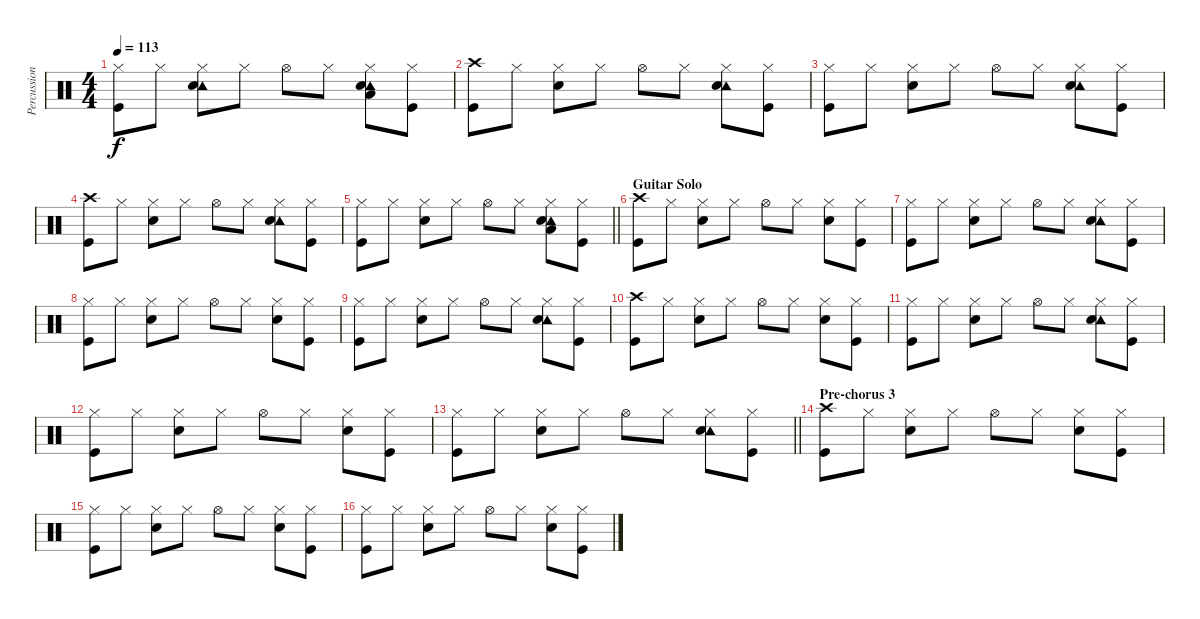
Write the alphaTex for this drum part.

\track ("Percussion" "Percussion") {instrument percussion}
\staff {score}
\articulation defaults
\ts (4 4)
\tempo 113
\clef neutral
\ks c
("Hi-Hat (closed)" "Kick (hit)").8{dy f} "Hi-Hat (closed)".8 ("Hi-Hat (closed)" "Tambourine (hit)" "Snare (hit) 2").8 "Hi-Hat (closed)".8 "Hi-Hat (open)".8 "Hi-Hat (closed)".8 ("Hi-Hat (closed)" "Tambourine (hit)" "Low Tom (hit)" "Snare (hit) 2").8 ("Hi-Hat (closed)" "Kick (hit)").8 |
("Crash high (hit)" "Kick (hit)").8 "Hi-Hat (closed)".8 ("Hi-Hat (closed)" "Snare (hit) 2").8 "Hi-Hat (closed)".8 "Hi-Hat (open)".8 "Hi-Hat (closed)".8 ("Hi-Hat (closed)" "Tambourine (hit)" "Snare (hit) 2").8 ("Hi-Hat (closed)" "Kick (hit)").8 |
("Hi-Hat (closed)" "Kick (hit)").8 "Hi-Hat (closed)".8 ("Hi-Hat (closed)" "Snare (hit) 2").8 "Hi-Hat (closed)".8 "Hi-Hat (open)".8 "Hi-Hat (closed)".8 ("Hi-Hat (closed)" "Tambourine (hit)" "Snare (hit) 2").8 ("Hi-Hat (closed)" "Kick (hit)").8 |
("Crash high (hit)" "Kick (hit)").8 "Hi-Hat (closed)".8 ("Hi-Hat (closed)" "Snare (hit) 2").8 "Hi-Hat (closed)".8 "Hi-Hat (open)".8 "Hi-Hat (closed)".8 ("Hi-Hat (closed)" "Tambourine (hit)" "Snare (hit) 2").8 ("Hi-Hat (closed)" "Kick (hit)").8 |
\barLineRight lightlight
("Hi-Hat (closed)" "Kick (hit)").8 "Hi-Hat (closed)".8 ("Hi-Hat (closed)" "Snare (hit) 2").8 "Hi-Hat (closed)".8 "Hi-Hat (open)".8 "Hi-Hat (closed)".8 ("Hi-Hat (closed)" "Tambourine (hit)" "Low Tom (hit)" "Snare (hit) 2").8 ("Hi-Hat (closed)" "Kick (hit)").8 |
\section ("" "Guitar Solo")
("Crash high (hit)" "Kick (hit)").8 "Hi-Hat (closed)".8 ("Hi-Hat (closed)" "Snare (hit) 2").8 "Hi-Hat (closed)".8 "Hi-Hat (open)".8 "Hi-Hat (closed)".8 ("Hi-Hat (closed)" "Snare (hit) 2").8 ("Hi-Hat (closed)" "Kick (hit)").8 |
("Hi-Hat (closed)" "Kick (hit)").8 "Hi-Hat (closed)".8 ("Hi-Hat (closed)" "Snare (hit) 2").8 "Hi-Hat (closed)".8 "Hi-Hat (open)".8 "Hi-Hat (closed)".8 ("Hi-Hat (closed)" "Tambourine (hit)" "Snare (hit) 2").8 ("Hi-Hat (closed)" "Kick (hit)").8 |
("Hi-Hat (closed)" "Kick (hit)").8 "Hi-Hat (closed)".8 ("Hi-Hat (closed)" "Snare (hit) 2").8 "Hi-Hat (closed)".8 "Hi-Hat (open)".8 "Hi-Hat (closed)".8 ("Hi-Hat (closed)" "Snare (hit) 2").8 ("Hi-Hat (closed)" "Kick (hit)").8 |
("Hi-Hat (closed)" "Kick (hit)").8 "Hi-Hat (closed)".8 ("Hi-Hat (closed)" "Snare (hit) 2").8 "Hi-Hat (closed)".8 "Hi-Hat (open)".8 "Hi-Hat (closed)".8 ("Hi-Hat (closed)" "Tambourine (hit)" "Snare (hit) 2").8 ("Hi-Hat (closed)" "Kick (hit)").8 |
("Crash high (hit)" "Kick (hit)").8 "Hi-Hat (closed)".8 ("Hi-Hat (closed)" "Snare (hit) 2").8 "Hi-Hat (closed)".8 "Hi-Hat (open)".8 "Hi-Hat (closed)".8 ("Hi-Hat (closed)" "Snare (hit) 2").8 ("Hi-Hat (closed)" "Kick (hit)").8 |
("Hi-Hat (closed)" "Kick (hit)").8 "Hi-Hat (closed)".8 ("Hi-Hat (closed)" "Snare (hit) 2").8 "Hi-Hat (closed)".8 "Hi-Hat (open)".8 "Hi-Hat (closed)".8 ("Hi-Hat (closed)" "Tambourine (hit)" "Snare (hit) 2").8 ("Hi-Hat (closed)" "Kick (hit)").8 |
("Hi-Hat (closed)" "Kick (hit)").8 "Hi-Hat (closed)".8 ("Hi-Hat (closed)" "Snare (hit) 2").8 "Hi-Hat (closed)".8 "Hi-Hat (open)".8 "Hi-Hat (closed)".8 ("Hi-Hat (closed)" "Snare (hit) 2").8 ("Hi-Hat (closed)" "Kick (hit)").8 |
\barLineRight lightlight
("Hi-Hat (closed)" "Kick (hit)").8 "Hi-Hat (closed)".8 ("Hi-Hat (closed)" "Snare (hit) 2").8 "Hi-Hat (closed)".8 "Hi-Hat (open)".8 "Hi-Hat (closed)".8 ("Hi-Hat (closed)" "Tambourine (hit)" "Snare (hit) 2").8 ("Hi-Hat (closed)" "Kick (hit)").8 |
\section ("" "Pre-chorus 3")
("Crash high (hit)" "Kick (hit)").8 "Hi-Hat (closed)".8 ("Hi-Hat (closed)" "Snare (hit) 2").8 "Hi-Hat (closed)".8 "Hi-Hat (open)".8 "Hi-Hat (closed)".8 ("Hi-Hat (closed)" "Snare (hit) 2").8 ("Hi-Hat (closed)" "Kick (hit)").8 |
("Hi-Hat (closed)" "Kick (hit)").8 "Hi-Hat (closed)".8 ("Hi-Hat (closed)" "Snare (hit) 2").8 "Hi-Hat (closed)".8 "Hi-Hat (open)".8 "Hi-Hat (closed)".8 ("Hi-Hat (closed)" "Snare (hit) 2").8 ("Hi-Hat (closed)" "Kick (hit)").8 |
("Hi-Hat (closed)" "Kick (hit)").8 "Hi-Hat (closed)".8 ("Hi-Hat (closed)" "Snare (hit) 2").8 "Hi-Hat (closed)".8 "Hi-Hat (open)".8 "Hi-Hat (closed)".8 ("Hi-Hat (closed)" "Snare (hit) 2").8 ("Hi-Hat (closed)" "Kick (hit)").8
